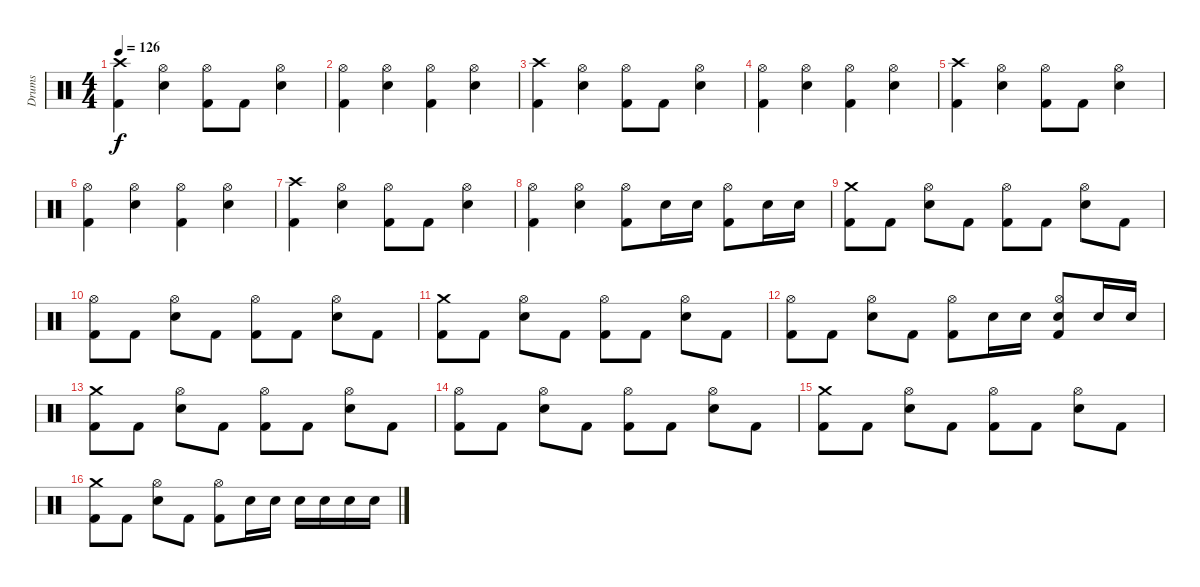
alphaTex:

\track ("Drums" "Drums") {instrument percussion}
\staff {score}
\articulation defaults
\ts (4 4)
\tempo 126
\clef neutral
\ks c
("Crash high (hit)" "Kick (hit) 2").4{dy f} ("Hi-Hat (open)" "Electric Snare (hit)").4 ("Hi-Hat (open)" "Kick (hit) 2").8 "Kick (hit) 2".8 ("Hi-Hat (open)" "Electric Snare (hit)").4 |
("Hi-Hat (open)" "Kick (hit) 2").4 ("Hi-Hat (open)" "Electric Snare (hit)").4 ("Hi-Hat (open)" "Kick (hit) 2").4 ("Hi-Hat (open)" "Electric Snare (hit)").4 |
("Crash high (hit)" "Kick (hit) 2").4 ("Hi-Hat (open)" "Electric Snare (hit)").4 ("Hi-Hat (open)" "Kick (hit) 2").8 "Kick (hit) 2".8 ("Hi-Hat (open)" "Electric Snare (hit)").4 |
("Hi-Hat (open)" "Kick (hit) 2").4 ("Hi-Hat (open)" "Electric Snare (hit)").4 ("Hi-Hat (open)" "Kick (hit) 2").4 ("Hi-Hat (open)" "Electric Snare (hit)").4 |
("Crash high (hit)" "Kick (hit) 2").4 ("Hi-Hat (open)" "Electric Snare (hit)").4 ("Hi-Hat (open)" "Kick (hit) 2").8 "Kick (hit) 2".8 ("Hi-Hat (open)" "Electric Snare (hit)").4 |
("Hi-Hat (open)" "Kick (hit) 2").4 ("Hi-Hat (open)" "Electric Snare (hit)").4 ("Hi-Hat (open)" "Kick (hit) 2").4 ("Hi-Hat (open)" "Electric Snare (hit)").4 |
("Crash high (hit)" "Kick (hit) 2").4 ("Hi-Hat (open)" "Electric Snare (hit)").4 ("Hi-Hat (open)" "Kick (hit) 2").8 "Kick (hit) 2".8 ("Hi-Hat (open)" "Electric Snare (hit)").4 |
("Hi-Hat (open)" "Kick (hit) 2").4 ("Hi-Hat (open)" "Electric Snare (hit)").4 ("Hi-Hat (open)" "Kick (hit) 2").8 "Electric Snare (hit)".16 "Electric Snare (hit)".16 ("Hi-Hat (open)" "Kick (hit) 2").8 "Electric Snare (hit)".16 "Electric Snare (hit)".16 |
("Crash medium (hit)" "Kick (hit) 2").8 "Kick (hit) 2".8 ("Hi-Hat (open)" "Electric Snare (hit)").8 "Kick (hit) 2".8 ("Hi-Hat (open)" "Kick (hit) 2").8 "Kick (hit) 2".8 ("Hi-Hat (open)" "Electric Snare (hit)").8 "Kick (hit) 2".8 |
("Hi-Hat (open)" "Kick (hit) 2").8 "Kick (hit) 2".8 ("Hi-Hat (open)" "Electric Snare (hit)").8 "Kick (hit) 2".8 ("Hi-Hat (open)" "Kick (hit) 2").8 "Kick (hit) 2".8 ("Hi-Hat (open)" "Electric Snare (hit)").8 "Kick (hit) 2".8 |
("Crash medium (hit)" "Kick (hit) 2").8 "Kick (hit) 2".8 ("Hi-Hat (open)" "Electric Snare (hit)").8 "Kick (hit) 2".8 ("Hi-Hat (open)" "Kick (hit) 2").8 "Kick (hit) 2".8 ("Hi-Hat (open)" "Electric Snare (hit)").8 "Kick (hit) 2".8 |
("Hi-Hat (open)" "Kick (hit) 2").8 "Kick (hit) 2".8 ("Hi-Hat (open)" "Electric Snare (hit)").8 "Kick (hit) 2".8 ("Hi-Hat (open)" "Kick (hit) 2").8 "Electric Snare (hit)".16 "Electric Snare (hit)".16 ("Hi-Hat (open)" "Electric Snare (hit)" "Kick (hit) 2").8 "Electric Snare (hit)".16 "Electric Snare (hit)".16 |
("Crash medium (hit)" "Kick (hit) 2").8 "Kick (hit) 2".8 ("Hi-Hat (open)" "Electric Snare (hit)").8 "Kick (hit) 2".8 ("Hi-Hat (open)" "Kick (hit) 2").8 "Kick (hit) 2".8 ("Hi-Hat (open)" "Electric Snare (hit)").8 "Kick (hit) 2".8 |
("Hi-Hat (open)" "Kick (hit) 2").8 "Kick (hit) 2".8 ("Hi-Hat (open)" "Electric Snare (hit)").8 "Kick (hit) 2".8 ("Hi-Hat (open)" "Kick (hit) 2").8 "Kick (hit) 2".8 ("Hi-Hat (open)" "Electric Snare (hit)").8 "Kick (hit) 2".8 |
("Crash medium (hit)" "Kick (hit) 2").8 "Kick (hit) 2".8 ("Hi-Hat (open)" "Electric Snare (hit)").8 "Kick (hit) 2".8 ("Hi-Hat (open)" "Kick (hit) 2").8 "Kick (hit) 2".8 ("Hi-Hat (open)" "Electric Snare (hit)").8 "Kick (hit) 2".8 |
("Crash medium (hit)" "Kick (hit) 2").8 "Kick (hit) 2".8 ("Hi-Hat (open)" "Electric Snare (hit)").8 "Kick (hit) 2".8 ("Hi-Hat (open)" "Kick (hit) 2").8 "Electric Snare (hit)".16 "Electric Snare (hit)".16 "Electric Snare (hit)".16 "Electric Snare (hit)".16 "Electric Snare (hit)".16 "Electric Snare (hit)".16
